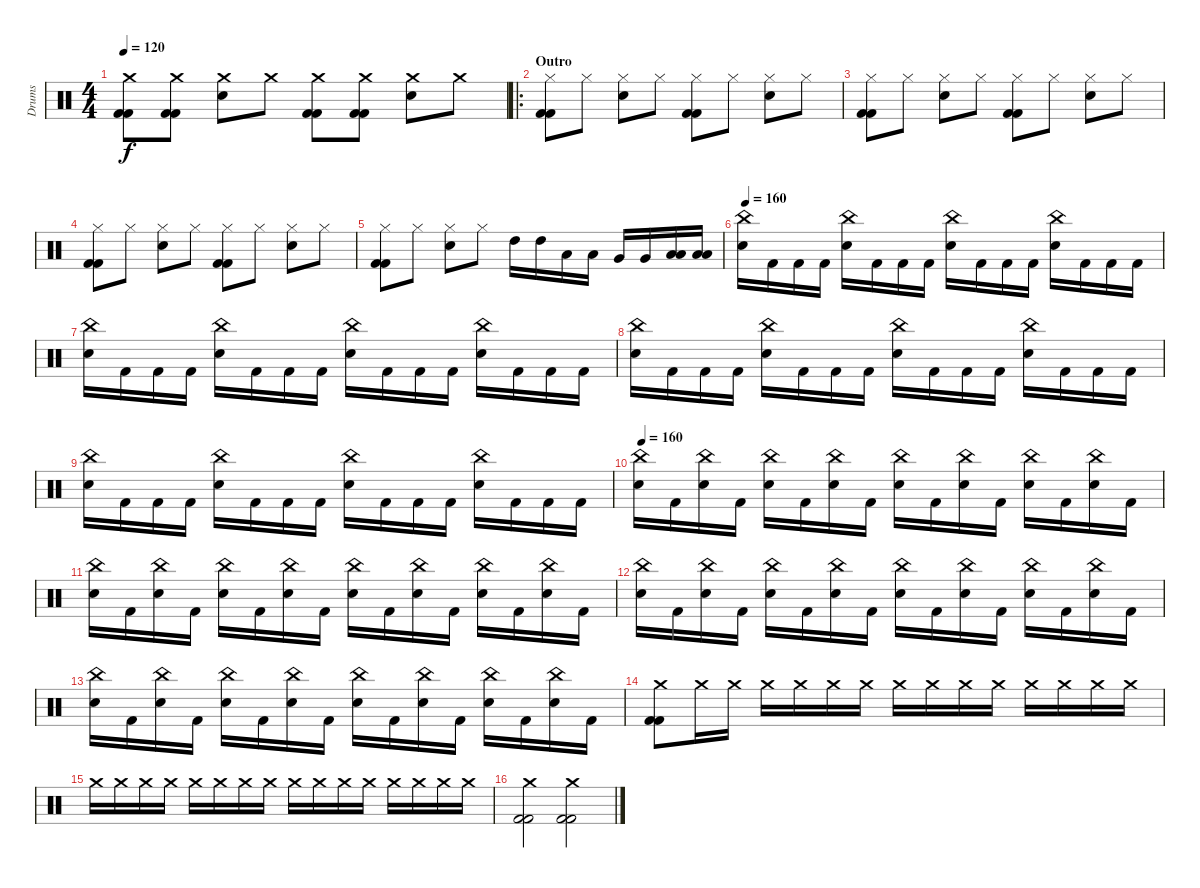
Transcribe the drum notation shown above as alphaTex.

\track ("Drums" "Drums") {instrument percussion}
\staff {score}
\articulation defaults
\ts (4 4)
\tempo 120
\clef neutral
\ks c
("Crash medium (hit)" "Kick (hit) 2" "Kick (hit) 2").8{dy f} ("Kick (hit) 2" "Kick (hit) 2" "Crash medium (hit)").8 ("Crash medium (hit)" "Electric Snare (hit)").8 "Crash medium (hit)".8 ("Kick (hit) 2" "Kick (hit) 2" "Crash medium (hit)").8 ("Crash medium (hit)" "Kick (hit) 2" "Kick (hit) 2").8 ("Electric Snare (hit)" "Crash medium (hit)").8 "Crash medium (hit)".8 |
\ro
\section ("" "Outro ")
("Hi-Hat (closed)" "Kick (hit) 2" "Kick (hit) 2").8 "Hi-Hat (closed)".8 ("Electric Snare (hit)" "Hi-Hat (closed)").8 "Hi-Hat (closed)".8 ("Kick (hit) 2" "Kick (hit) 2" "Hi-Hat (closed)").8 "Hi-Hat (closed)".8 ("Hi-Hat (closed)" "Electric Snare (hit)").8 "Hi-Hat (closed)".8 |
("Hi-Hat (closed)" "Kick (hit) 2" "Kick (hit) 2").8 "Hi-Hat (closed)".8 ("Electric Snare (hit)" "Hi-Hat (closed)").8 "Hi-Hat (closed)".8 ("Kick (hit) 2" "Kick (hit) 2" "Hi-Hat (closed)").8 "Hi-Hat (closed)".8 ("Hi-Hat (closed)" "Electric Snare (hit)").8 "Hi-Hat (closed)".8 |
("Hi-Hat (closed)" "Kick (hit) 2" "Kick (hit) 2").8 "Hi-Hat (closed)".8 ("Electric Snare (hit)" "Hi-Hat (closed)").8 "Hi-Hat (closed)".8 ("Kick (hit) 2" "Kick (hit) 2" "Hi-Hat (closed)").8 "Hi-Hat (closed)".8 ("Hi-Hat (closed)" "Electric Snare (hit)").8 "Hi-Hat (closed)".8 |
("Hi-Hat (closed)" "Kick (hit) 2" "Kick (hit) 2").8 "Hi-Hat (closed)".8 ("Electric Snare (hit)" "Hi-Hat (closed)").8 "Hi-Hat (closed)".8 "High Tom (hit)".16 "High Tom (hit)".16 "Low Tom (hit)".16 "Low Tom (hit)".16 "Very Low Tom (hit)".16 "Very Low Tom (hit)".16 ("Low Floor Tom (hit)" "Low Floor Tom (hit)").16 ("Low Floor Tom (hit)" "Low Floor Tom (hit)").16 |
\tempo 160
("Electric Snare (hit)" "China (hit)").16 "Kick (hit) 2".16 "Kick (hit) 2".16 "Kick (hit) 2".16 ("China (hit)" "Electric Snare (hit)").16 "Kick (hit) 2".16 "Kick (hit) 2".16 "Kick (hit) 2".16 ("Electric Snare (hit)" "China (hit)").16 "Kick (hit) 2".16 "Kick (hit) 2".16 "Kick (hit) 2".16 ("China (hit)" "Electric Snare (hit)").16 "Kick (hit) 2".16 "Kick (hit) 2".16 "Kick (hit) 2".16 |
("Electric Snare (hit)" "China (hit)").16 "Kick (hit) 2".16 "Kick (hit) 2".16 "Kick (hit) 2".16 ("China (hit)" "Electric Snare (hit)").16 "Kick (hit) 2".16 "Kick (hit) 2".16 "Kick (hit) 2".16 ("Electric Snare (hit)" "China (hit)").16 "Kick (hit) 2".16 "Kick (hit) 2".16 "Kick (hit) 2".16 ("China (hit)" "Electric Snare (hit)").16 "Kick (hit) 2".16 "Kick (hit) 2".16 "Kick (hit) 2".16 |
("Electric Snare (hit)" "China (hit)").16 "Kick (hit) 2".16 "Kick (hit) 2".16 "Kick (hit) 2".16 ("China (hit)" "Electric Snare (hit)").16 "Kick (hit) 2".16 "Kick (hit) 2".16 "Kick (hit) 2".16 ("Electric Snare (hit)" "China (hit)").16 "Kick (hit) 2".16 "Kick (hit) 2".16 "Kick (hit) 2".16 ("China (hit)" "Electric Snare (hit)").16 "Kick (hit) 2".16 "Kick (hit) 2".16 "Kick (hit) 2".16 |
("Electric Snare (hit)" "China (hit)").16 "Kick (hit) 2".16 "Kick (hit) 2".16 "Kick (hit) 2".16 ("China (hit)" "Electric Snare (hit)").16 "Kick (hit) 2".16 "Kick (hit) 2".16 "Kick (hit) 2".16 ("Electric Snare (hit)" "China (hit)").16 "Kick (hit) 2".16 "Kick (hit) 2".16 "Kick (hit) 2".16 ("China (hit)" "Electric Snare (hit)").16 "Kick (hit) 2".16 "Kick (hit) 2".16 "Kick (hit) 2".16 |
\tempo 160
("China (hit)" "Electric Snare (hit)").16 "Kick (hit) 2".16 ("Electric Snare (hit)" "China (hit)").16 "Kick (hit) 2".16 ("China (hit)" "Electric Snare (hit)").16 "Kick (hit) 2".16 ("Electric Snare (hit)" "China (hit)").16 "Kick (hit) 2".16 ("China (hit)" "Electric Snare (hit)").16 "Kick (hit) 2".16 ("Electric Snare (hit)" "China (hit)").16 "Kick (hit) 2".16 ("China (hit)" "Electric Snare (hit)").16 "Kick (hit) 2".16 ("Electric Snare (hit)" "China (hit)").16 "Kick (hit) 2".16 |
("China (hit)" "Electric Snare (hit)").16 "Kick (hit) 2".16 ("Electric Snare (hit)" "China (hit)").16 "Kick (hit) 2".16 ("China (hit)" "Electric Snare (hit)").16 "Kick (hit) 2".16 ("Electric Snare (hit)" "China (hit)").16 "Kick (hit) 2".16 ("China (hit)" "Electric Snare (hit)").16 "Kick (hit) 2".16 ("Electric Snare (hit)" "China (hit)").16 "Kick (hit) 2".16 ("China (hit)" "Electric Snare (hit)").16 "Kick (hit) 2".16 ("Electric Snare (hit)" "China (hit)").16 "Kick (hit) 2".16 |
("China (hit)" "Electric Snare (hit)").16 "Kick (hit) 2".16 ("Electric Snare (hit)" "China (hit)").16 "Kick (hit) 2".16 ("China (hit)" "Electric Snare (hit)").16 "Kick (hit) 2".16 ("Electric Snare (hit)" "China (hit)").16 "Kick (hit) 2".16 ("China (hit)" "Electric Snare (hit)").16 "Kick (hit) 2".16 ("Electric Snare (hit)" "China (hit)").16 "Kick (hit) 2".16 ("China (hit)" "Electric Snare (hit)").16 "Kick (hit) 2".16 ("Electric Snare (hit)" "China (hit)").16 "Kick (hit) 2".16 |
("China (hit)" "Electric Snare (hit)").16 "Kick (hit) 2".16 ("Electric Snare (hit)" "China (hit)").16 "Kick (hit) 2".16 ("China (hit)" "Electric Snare (hit)").16 "Kick (hit) 2".16 ("Electric Snare (hit)" "China (hit)").16 "Kick (hit) 2".16 ("China (hit)" "Electric Snare (hit)").16 "Kick (hit) 2".16 ("Electric Snare (hit)" "China (hit)").16 "Kick (hit) 2".16 ("China (hit)" "Electric Snare (hit)").16 "Kick (hit) 2".16 ("Electric Snare (hit)" "China (hit)").16 "Kick (hit) 2".16 |
("Crash medium (hit)" "Kick (hit) 2" "Kick (hit) 2").8 "Crash medium (hit)".16{volume 8} "Crash medium (hit)".16 "Crash medium (hit)".16 "Crash medium (hit)".16 "Crash medium (hit)".16 "Crash medium (hit)".16 "Crash medium (hit)".16 "Crash medium (hit)".16 "Crash medium (hit)".16 "Crash medium (hit)".16 "Crash medium (hit)".16 "Crash medium (hit)".16 "Crash medium (hit)".16 "Crash medium (hit)".16 |
"Crash medium (hit)".16 "Crash medium (hit)".16 "Crash medium (hit)".16 "Crash medium (hit)".16 "Crash medium (hit)".16 "Crash medium (hit)".16 "Crash medium (hit)".16 "Crash medium (hit)".16 "Crash medium (hit)".16 "Crash medium (hit)".16 "Crash medium (hit)".16 "Crash medium (hit)".16 "Crash medium (hit)".16 "Crash medium (hit)".16 "Crash medium (hit)".16 "Crash medium (hit)".16 |
("Crash medium (hit)" "Kick (hit) 2" "Kick (hit) 2").2{volume 13} ("Kick (hit) 2" "Kick (hit) 2" "Crash medium (hit)").2
